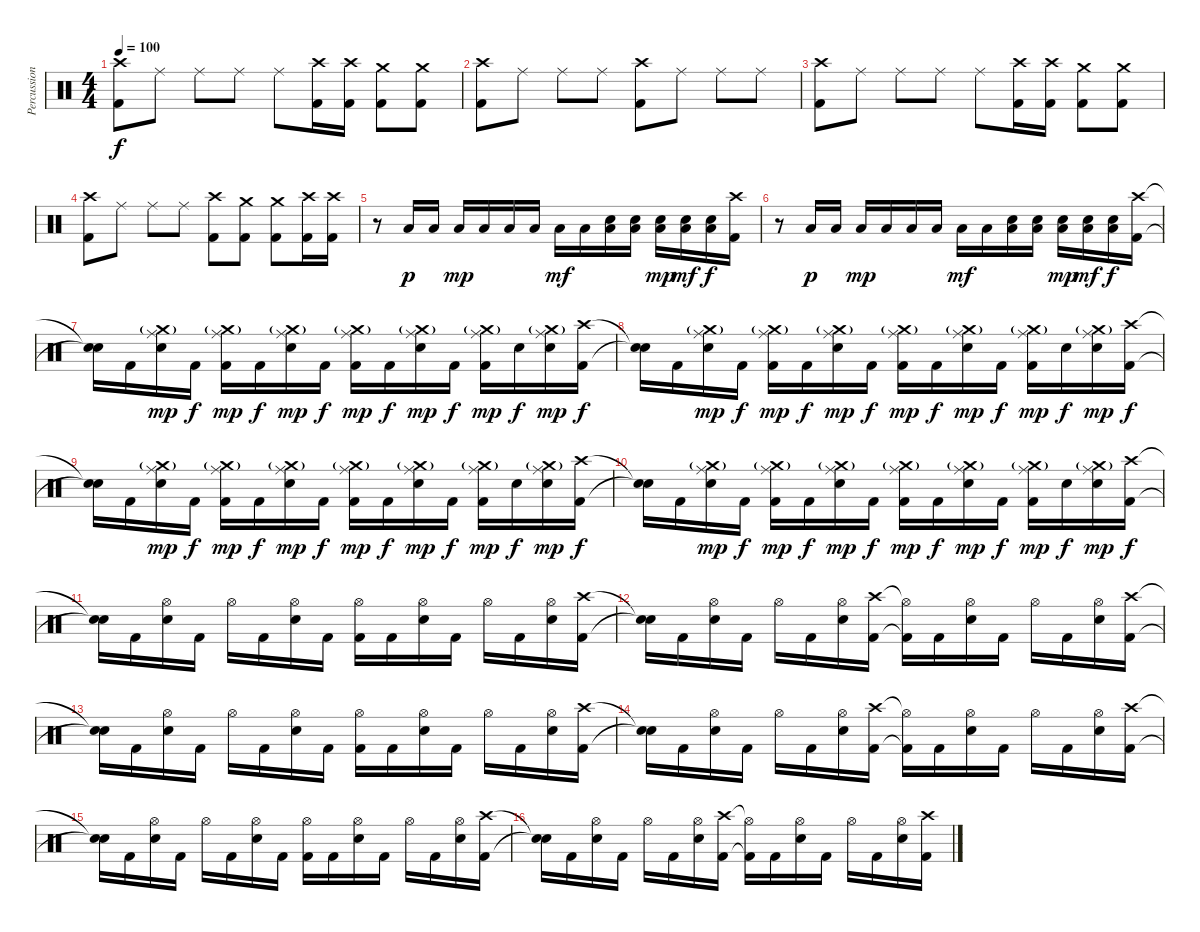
\track ("Percussion" "Percussion") {instrument percussion}
\staff {score}
\articulation defaults
\ts (4 4)
\tempo 100
\clef neutral
\ks c
("Crash high (hit)" "Kick (hit) 2").8{dy f} "Ride (middle)".8 "Ride (middle)".8 "Ride (middle)".8 "Ride (middle)".8 ("Crash high (hit)" "Kick (hit) 2").16 ("Crash high (hit)" "Kick (hit) 2").16 ("Crash medium (hit)" "Kick (hit) 2").8 ("Crash medium (hit)" "Kick (hit) 2").8 |
("Crash high (hit)" "Kick (hit) 2").8 "Ride (middle)".8 "Ride (middle)".8 "Ride (middle)".8 ("Crash high (hit)" "Kick (hit) 2").8 "Ride (middle)".8 "Ride (middle)".8 "Ride (middle)".8 |
("Crash high (hit)" "Kick (hit) 2").8 "Ride (middle)".8 "Ride (middle)".8 "Ride (middle)".8 "Ride (middle)".8 ("Crash high (hit)" "Kick (hit) 2").16 ("Crash high (hit)" "Kick (hit) 2").16 ("Crash medium (hit)" "Kick (hit) 2").8 ("Crash medium (hit)" "Kick (hit) 2").8 |
("Crash high (hit)" "Kick (hit) 2").8 "Ride (middle)".8 "Ride (middle)".8 "Ride (middle)".8 ("Crash high (hit)" "Kick (hit) 2").8 ("Crash medium (hit)" "Kick (hit) 2").8 ("Crash medium (hit)" "Kick (hit) 2").8 ("Crash high (hit)" "Kick (hit) 2").16 ("Crash high (hit)" "Kick (hit) 2").16 |
r.8 "Low Floor Tom (hit)".16{dy p} "Low Floor Tom (hit)".16 "Low Floor Tom (hit)".16{dy mp} "Low Floor Tom (hit)".16 "Low Floor Tom (hit)".16 "Low Floor Tom (hit)".16 "Low Floor Tom (hit)".16{dy mf} "Low Floor Tom (hit)".16 ("Electric Snare (hit)" "Low Floor Tom (hit)").16 ("Electric Snare (hit)" "Low Floor Tom (hit)").16 ("Electric Snare (hit)" "Low Floor Tom (hit)").16{dy mp} ("Electric Snare (hit)" "Low Floor Tom (hit)").16{dy mf} ("Electric Snare (hit)" "Low Floor Tom (hit)").16{dy f} ("Crash high (hit)" "Kick (hit) 2").16 |
r.8 "Low Floor Tom (hit)".16{dy p} "Low Floor Tom (hit)".16 "Low Floor Tom (hit)".16{dy mp} "Low Floor Tom (hit)".16 "Low Floor Tom (hit)".16 "Low Floor Tom (hit)".16 "Low Floor Tom (hit)".16{dy mf} "Low Floor Tom (hit)".16 ("Electric Snare (hit)" "Low Floor Tom (hit)").16 ("Electric Snare (hit)" "Low Floor Tom (hit)").16 ("Electric Snare (hit)" "Low Floor Tom (hit)").16{dy mp} ("Electric Snare (hit)" "Low Floor Tom (hit)").16{dy mf} ("Electric Snare (hit)" "Low Floor Tom (hit)").16{dy f} ("Crash high (hit)" "Kick (hit) 2").16 |
("Snare (hit)"{t} "Snare (hit)"{t}).16 "Kick (hit) 2".16 ("Crash medium (hit)"{g} "Ride (middle)" "Electric Snare (hit)").16{dy mp} "Kick (hit) 2".16{dy f} ("Crash medium (hit)"{g} "Ride (middle)" "Kick (hit) 2").16{dy mp} "Kick (hit) 2".16{dy f} ("Crash medium (hit)"{g} "Ride (middle)" "Electric Snare (hit)").16{dy mp} "Kick (hit) 2".16{dy f} ("Crash medium (hit)"{g} "Ride (middle)" "Kick (hit) 2").16{dy mp} "Kick (hit) 2".16{dy f} ("Crash medium (hit)"{g} "Ride (middle)" "Electric Snare (hit)").16{dy mp} "Kick (hit) 2".16{dy f} ("Crash medium (hit)"{g} "Ride (middle)" "Kick (hit) 2").16{dy mp} "Electric Snare (hit)".16{dy f} ("Crash medium (hit)"{g} "Ride (middle)" "Electric Snare (hit)").16{dy mp} ("Crash high (hit)" "Kick (hit) 2").16{dy f} |
("Snare (hit)"{t} "Snare (hit)"{t}).16 "Kick (hit) 2".16 ("Crash medium (hit)"{g} "Ride (middle)" "Electric Snare (hit)").16{dy mp} "Kick (hit) 2".16{dy f} ("Crash medium (hit)"{g} "Ride (middle)" "Kick (hit) 2").16{dy mp} "Kick (hit) 2".16{dy f} ("Crash medium (hit)"{g} "Ride (middle)" "Electric Snare (hit)").16{dy mp} "Kick (hit) 2".16{dy f} ("Crash medium (hit)"{g} "Ride (middle)" "Kick (hit) 2").16{dy mp} "Kick (hit) 2".16{dy f} ("Crash medium (hit)"{g} "Ride (middle)" "Electric Snare (hit)").16{dy mp} "Kick (hit) 2".16{dy f} ("Crash medium (hit)"{g} "Ride (middle)" "Kick (hit) 2").16{dy mp} "Electric Snare (hit)".16{dy f} ("Crash medium (hit)"{g} "Ride (middle)" "Electric Snare (hit)").16{dy mp} ("Crash high (hit)" "Kick (hit) 2").16{dy f} |
("Snare (hit)"{t} "Snare (hit)"{t}).16 "Kick (hit) 2".16 ("Crash medium (hit)"{g} "Ride (middle)" "Electric Snare (hit)").16{dy mp} "Kick (hit) 2".16{dy f} ("Crash medium (hit)"{g} "Ride (middle)" "Kick (hit) 2").16{dy mp} "Kick (hit) 2".16{dy f} ("Crash medium (hit)"{g} "Ride (middle)" "Electric Snare (hit)").16{dy mp} "Kick (hit) 2".16{dy f} ("Crash medium (hit)"{g} "Ride (middle)" "Kick (hit) 2").16{dy mp} "Kick (hit) 2".16{dy f} ("Crash medium (hit)"{g} "Ride (middle)" "Electric Snare (hit)").16{dy mp} "Kick (hit) 2".16{dy f} ("Crash medium (hit)"{g} "Ride (middle)" "Kick (hit) 2").16{dy mp} "Electric Snare (hit)".16{dy f} ("Crash medium (hit)"{g} "Ride (middle)" "Electric Snare (hit)").16{dy mp} ("Crash high (hit)" "Kick (hit) 2").16{dy f} |
("Snare (hit)"{t} "Snare (hit)"{t}).16 "Kick (hit) 2".16 ("Crash medium (hit)"{g} "Ride (middle)" "Electric Snare (hit)").16{dy mp} "Kick (hit) 2".16{dy f} ("Crash medium (hit)"{g} "Ride (middle)" "Kick (hit) 2").16{dy mp} "Kick (hit) 2".16{dy f} ("Crash medium (hit)"{g} "Ride (middle)" "Electric Snare (hit)").16{dy mp} "Kick (hit) 2".16{dy f} ("Crash medium (hit)"{g} "Ride (middle)" "Kick (hit) 2").16{dy mp} "Kick (hit) 2".16{dy f} ("Crash medium (hit)"{g} "Ride (middle)" "Electric Snare (hit)").16{dy mp} "Kick (hit) 2".16{dy f} ("Crash medium (hit)"{g} "Ride (middle)" "Kick (hit) 2").16{dy mp} "Electric Snare (hit)".16{dy f} ("Crash medium (hit)"{g} "Ride (middle)" "Electric Snare (hit)").16{dy mp} ("Crash high (hit)" "Kick (hit) 2").16{dy f} |
("Snare (hit)"{t} "Snare (hit)"{t}).16 "Kick (hit) 2".16 ("Hi-Hat (open)" "Electric Snare (hit)").16 "Kick (hit) 2".16 "Hi-Hat (open)".16 "Kick (hit) 2".16 ("Hi-Hat (open)" "Electric Snare (hit)").16 "Kick (hit) 2".16 ("Hi-Hat (open)" "Kick (hit) 2").16 "Kick (hit) 2".16 ("Hi-Hat (open)" "Electric Snare (hit)").16 "Kick (hit) 2".16 "Hi-Hat (open)".16 "Kick (hit) 2".16 ("Hi-Hat (open)" "Electric Snare (hit)").16 ("Crash high (hit)" "Kick (hit) 2").16 |
("Snare (hit)"{t} "Snare (hit)"{t}).16 "Kick (hit) 2".16 ("Hi-Hat (open)" "Electric Snare (hit)").16 "Kick (hit) 2".16 "Hi-Hat (open)".16 "Kick (hit) 2".16 ("Hi-Hat (open)" "Electric Snare (hit)").16 ("Crash high (hit)" "Kick (hit) 2").16 ("Hi-Hat (open)"{t} "Kick (hit) 2"{t}).16 "Kick (hit) 2".16 ("Hi-Hat (open)" "Electric Snare (hit)").16 "Kick (hit) 2".16 "Hi-Hat (open)".16 "Kick (hit) 2".16 ("Hi-Hat (open)" "Electric Snare (hit)").16 ("Crash high (hit)" "Kick (hit) 2").16 |
("Snare (hit)"{t} "Snare (hit)"{t}).16 "Kick (hit) 2".16 ("Hi-Hat (open)" "Electric Snare (hit)").16 "Kick (hit) 2".16 "Hi-Hat (open)".16 "Kick (hit) 2".16 ("Hi-Hat (open)" "Electric Snare (hit)").16 "Kick (hit) 2".16 ("Hi-Hat (open)" "Kick (hit) 2").16 "Kick (hit) 2".16 ("Hi-Hat (open)" "Electric Snare (hit)").16 "Kick (hit) 2".16 "Hi-Hat (open)".16 "Kick (hit) 2".16 ("Hi-Hat (open)" "Electric Snare (hit)").16 ("Crash high (hit)" "Kick (hit) 2").16 |
("Snare (hit)"{t} "Snare (hit)"{t}).16 "Kick (hit) 2".16 ("Hi-Hat (open)" "Electric Snare (hit)").16 "Kick (hit) 2".16 "Hi-Hat (open)".16 "Kick (hit) 2".16 ("Hi-Hat (open)" "Electric Snare (hit)").16 ("Crash high (hit)" "Kick (hit) 2").16 ("Hi-Hat (open)"{t} "Kick (hit) 2"{t}).16 "Kick (hit) 2".16 ("Hi-Hat (open)" "Electric Snare (hit)").16 "Kick (hit) 2".16 "Hi-Hat (open)".16 "Kick (hit) 2".16 ("Hi-Hat (open)" "Electric Snare (hit)").16 ("Crash high (hit)" "Kick (hit) 2").16 |
("Snare (hit)"{t} "Snare (hit)"{t}).16 "Kick (hit) 2".16 ("Hi-Hat (open)" "Electric Snare (hit)").16 "Kick (hit) 2".16 "Hi-Hat (open)".16 "Kick (hit) 2".16 ("Hi-Hat (open)" "Electric Snare (hit)").16 "Kick (hit) 2".16 ("Hi-Hat (open)" "Kick (hit) 2").16 "Kick (hit) 2".16 ("Hi-Hat (open)" "Electric Snare (hit)").16 "Kick (hit) 2".16 "Hi-Hat (open)".16 "Kick (hit) 2".16 ("Hi-Hat (open)" "Electric Snare (hit)").16 ("Crash high (hit)" "Kick (hit) 2").16 |
("Snare (hit)"{t} "Snare (hit)"{t}).16 "Kick (hit) 2".16 ("Hi-Hat (open)" "Electric Snare (hit)").16 "Kick (hit) 2".16 "Hi-Hat (open)".16 "Kick (hit) 2".16 ("Hi-Hat (open)" "Electric Snare (hit)").16 ("Crash high (hit)" "Kick (hit) 2").16 ("Hi-Hat (open)"{t} "Kick (hit) 2"{t}).16 "Kick (hit) 2".16 ("Hi-Hat (open)" "Electric Snare (hit)").16 "Kick (hit) 2".16 "Hi-Hat (open)".16 "Kick (hit) 2".16 ("Hi-Hat (open)" "Electric Snare (hit)").16 ("Crash high (hit)" "Kick (hit) 2").16
